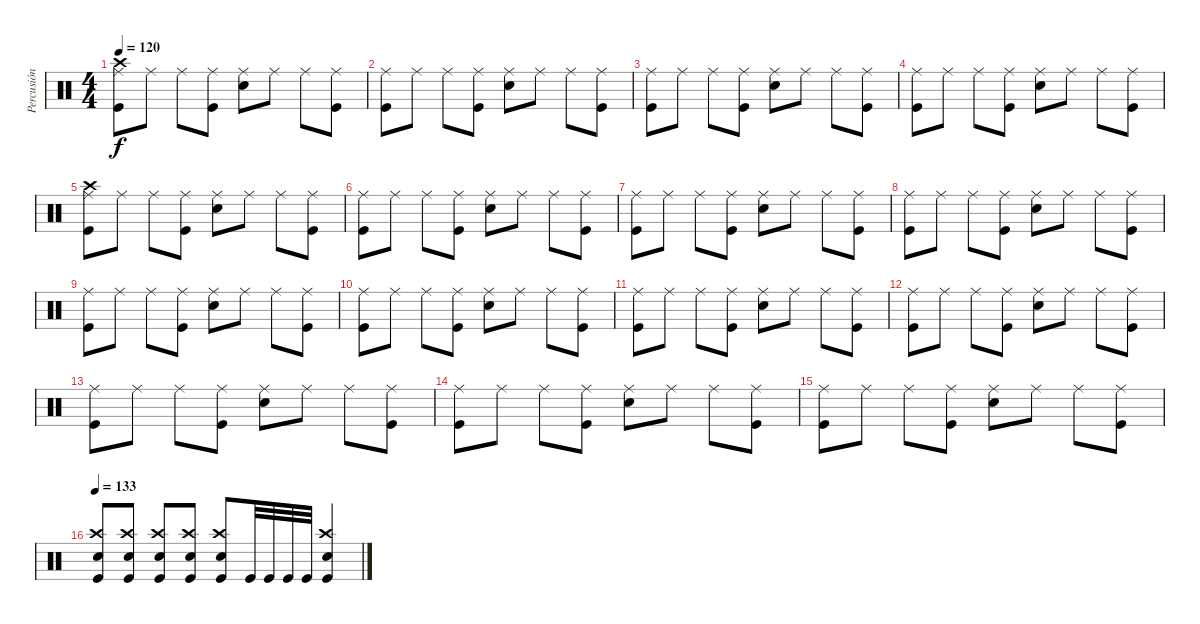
\track ("Percusión" "Percusión") {instrument percussion}
\staff {score}
\articulation defaults
\ts (4 4)
\tempo 120
\clef neutral
\ks c
("Ride (middle)" "Kick (hit)" "Crash high (hit)").8{dy f} "Ride (middle)".8 "Ride (middle)".8 ("Ride (middle)" "Kick (hit)").8 ("Ride (middle)" "Snare (hit) 2").8 "Ride (middle)".8 "Ride (middle)".8 ("Ride (middle)" "Kick (hit)").8 |
("Ride (middle)" "Kick (hit)").8 "Ride (middle)".8 "Ride (middle)".8 ("Ride (middle)" "Kick (hit)").8 ("Ride (middle)" "Snare (hit) 2").8 "Ride (middle)".8 "Ride (middle)".8 ("Ride (middle)" "Kick (hit)").8 |
("Ride (middle)" "Kick (hit)").8 "Ride (middle)".8 "Ride (middle)".8 ("Ride (middle)" "Kick (hit)").8 ("Ride (middle)" "Snare (hit) 2").8 "Ride (middle)".8 "Ride (middle)".8 ("Ride (middle)" "Kick (hit)").8 |
("Ride (middle)" "Kick (hit)").8 "Ride (middle)".8 "Ride (middle)".8 ("Ride (middle)" "Kick (hit)").8 ("Ride (middle)" "Snare (hit) 2").8 "Ride (middle)".8 "Ride (middle)".8 ("Ride (middle)" "Kick (hit)").8 |
("Ride (middle)" "Kick (hit)" "Crash high (hit)").8 "Ride (middle)".8 "Ride (middle)".8 ("Ride (middle)" "Kick (hit)").8 ("Ride (middle)" "Snare (hit) 2").8 "Ride (middle)".8 "Ride (middle)".8 ("Ride (middle)" "Kick (hit)").8 |
("Ride (middle)" "Kick (hit)").8 "Ride (middle)".8 "Ride (middle)".8 ("Ride (middle)" "Kick (hit)").8 ("Ride (middle)" "Snare (hit) 2").8 "Ride (middle)".8 "Ride (middle)".8 ("Ride (middle)" "Kick (hit)").8 |
("Ride (middle)" "Kick (hit)").8 "Ride (middle)".8 "Ride (middle)".8 ("Ride (middle)" "Kick (hit)").8 ("Ride (middle)" "Snare (hit) 2").8 "Ride (middle)".8 "Ride (middle)".8 ("Ride (middle)" "Kick (hit)").8 |
("Ride (middle)" "Kick (hit)").8 "Ride (middle)".8 "Ride (middle)".8 ("Ride (middle)" "Kick (hit)").8 ("Ride (middle)" "Snare (hit) 2").8 "Ride (middle)".8 "Ride (middle)".8 ("Ride (middle)" "Kick (hit)").8 |
("Ride (middle)" "Kick (hit)").8 "Ride (middle)".8 "Ride (middle)".8 ("Ride (middle)" "Kick (hit)").8 ("Ride (middle)" "Snare (hit) 2").8 "Ride (middle)".8 "Ride (middle)".8 ("Ride (middle)" "Kick (hit)").8 |
("Ride (middle)" "Kick (hit)").8 "Ride (middle)".8 "Ride (middle)".8 ("Ride (middle)" "Kick (hit)").8 ("Ride (middle)" "Snare (hit) 2").8 "Ride (middle)".8 "Ride (middle)".8 ("Ride (middle)" "Kick (hit)").8 |
("Ride (middle)" "Kick (hit)").8 "Ride (middle)".8 "Ride (middle)".8 ("Ride (middle)" "Kick (hit)").8 ("Ride (middle)" "Snare (hit) 2").8 "Ride (middle)".8 "Ride (middle)".8 ("Ride (middle)" "Kick (hit)").8 |
("Ride (middle)" "Kick (hit)").8 "Ride (middle)".8 "Ride (middle)".8 ("Ride (middle)" "Kick (hit)").8 ("Ride (middle)" "Snare (hit) 2").8 "Ride (middle)".8 "Ride (middle)".8 ("Ride (middle)" "Kick (hit)").8 |
("Ride (middle)" "Kick (hit)").8 "Ride (middle)".8 "Ride (middle)".8 ("Ride (middle)" "Kick (hit)").8 ("Ride (middle)" "Snare (hit) 2").8 "Ride (middle)".8 "Ride (middle)".8 ("Ride (middle)" "Kick (hit)").8 |
("Ride (middle)" "Kick (hit)").8 "Ride (middle)".8 "Ride (middle)".8 ("Ride (middle)" "Kick (hit)").8 ("Ride (middle)" "Snare (hit) 2").8 "Ride (middle)".8 "Ride (middle)".8 ("Ride (middle)" "Kick (hit)").8 |
("Ride (middle)" "Kick (hit)").8 "Ride (middle)".8 "Ride (middle)".8 ("Ride (middle)" "Kick (hit)").8 ("Ride (middle)" "Snare (hit) 2").8 "Ride (middle)".8 "Ride (middle)".8 ("Ride (middle)" "Kick (hit)").8 |
\tempo 133
("Kick (hit)" "Snare (hit) 2" "Crash high (hit)").8 ("Kick (hit)" "Snare (hit) 2" "Crash high (hit)").8 ("Kick (hit)" "Snare (hit) 2" "Crash high (hit)").8 ("Kick (hit)" "Snare (hit) 2" "Crash high (hit)").8 ("Kick (hit)" "Snare (hit) 2" "Crash high (hit)").8 "Kick (hit)".32 "Kick (hit)".32 "Kick (hit)".32 "Kick (hit)".32 ("Kick (hit)" "Snare (hit) 2" "Crash high (hit)").4
